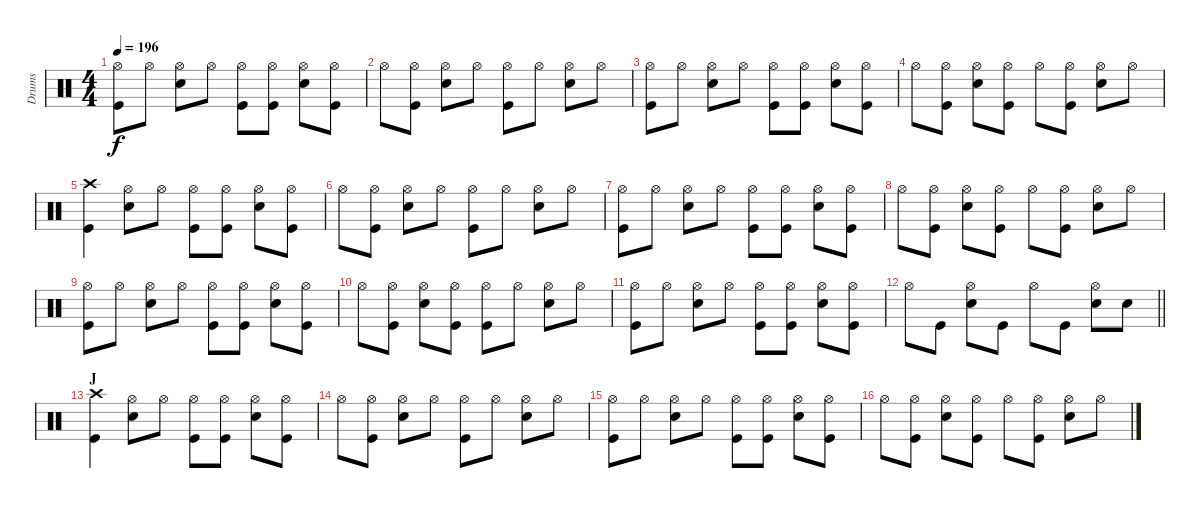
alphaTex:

\track ("Drums" "Drums") {instrument percussion}
\staff {score}
\articulation defaults
\ts (4 4)
\tempo 196
\clef neutral
\ks c
("Hi-Hat (open)" "Kick (hit)").8{dy f} "Hi-Hat (open)".8 ("Hi-Hat (open)" "Electric Snare (hit)").8 "Hi-Hat (open)".8 ("Hi-Hat (open)" "Kick (hit)").8 ("Hi-Hat (open)" "Kick (hit)").8 ("Hi-Hat (open)" "Electric Snare (hit)").8 ("Hi-Hat (open)" "Kick (hit)").8 |
"Hi-Hat (open)".8 ("Hi-Hat (open)" "Kick (hit)").8 ("Hi-Hat (open)" "Electric Snare (hit)").8 "Hi-Hat (open)".8 ("Hi-Hat (open)" "Kick (hit)").8 "Hi-Hat (open)".8 ("Hi-Hat (open)" "Electric Snare (hit)").8 "Hi-Hat (open)".8 |
("Hi-Hat (open)" "Kick (hit)").8 "Hi-Hat (open)".8 ("Hi-Hat (open)" "Electric Snare (hit)").8 "Hi-Hat (open)".8 ("Hi-Hat (open)" "Kick (hit)").8 ("Hi-Hat (open)" "Kick (hit)").8 ("Hi-Hat (open)" "Electric Snare (hit)").8 ("Hi-Hat (open)" "Kick (hit)").8 |
"Hi-Hat (open)".8 ("Hi-Hat (open)" "Kick (hit)").8 ("Hi-Hat (open)" "Electric Snare (hit)").8 ("Hi-Hat (open)" "Kick (hit)").8 "Hi-Hat (open)".8 ("Hi-Hat (open)" "Kick (hit)").8 ("Hi-Hat (open)" "Electric Snare (hit)").8 "Hi-Hat (open)".8 |
("Crash high (hit)" "Kick (hit)").4 ("Hi-Hat (open)" "Electric Snare (hit)").8 "Hi-Hat (open)".8 ("Hi-Hat (open)" "Kick (hit)").8 ("Hi-Hat (open)" "Kick (hit)").8 ("Hi-Hat (open)" "Electric Snare (hit)").8 ("Hi-Hat (open)" "Kick (hit)").8 |
"Hi-Hat (open)".8 ("Hi-Hat (open)" "Kick (hit)").8 ("Hi-Hat (open)" "Electric Snare (hit)").8 "Hi-Hat (open)".8 ("Hi-Hat (open)" "Kick (hit)").8 "Hi-Hat (open)".8 ("Hi-Hat (open)" "Electric Snare (hit)").8 "Hi-Hat (open)".8 |
("Hi-Hat (open)" "Kick (hit)").8 "Hi-Hat (open)".8 ("Hi-Hat (open)" "Electric Snare (hit)").8 "Hi-Hat (open)".8 ("Hi-Hat (open)" "Kick (hit)").8 ("Hi-Hat (open)" "Kick (hit)").8 ("Hi-Hat (open)" "Electric Snare (hit)").8 ("Hi-Hat (open)" "Kick (hit)").8 |
"Hi-Hat (open)".8 ("Hi-Hat (open)" "Kick (hit)").8 ("Hi-Hat (open)" "Electric Snare (hit)").8 ("Hi-Hat (open)" "Kick (hit)").8 "Hi-Hat (open)".8 ("Hi-Hat (open)" "Kick (hit)").8 ("Hi-Hat (open)" "Electric Snare (hit)").8 "Hi-Hat (open)".8 |
("Hi-Hat (open)" "Kick (hit)").8 "Hi-Hat (open)".8 ("Hi-Hat (open)" "Electric Snare (hit)").8 "Hi-Hat (open)".8 ("Hi-Hat (open)" "Kick (hit)").8 ("Hi-Hat (open)" "Kick (hit)").8 ("Hi-Hat (open)" "Electric Snare (hit)").8 ("Hi-Hat (open)" "Kick (hit)").8 |
"Hi-Hat (open)".8 ("Hi-Hat (open)" "Kick (hit)").8 ("Hi-Hat (open)" "Electric Snare (hit)").8 ("Hi-Hat (open)" "Kick (hit)").8 ("Hi-Hat (open)" "Kick (hit)").8 "Hi-Hat (open)".8 ("Hi-Hat (open)" "Electric Snare (hit)").8 "Hi-Hat (open)".8 |
("Hi-Hat (open)" "Kick (hit)").8 "Hi-Hat (open)".8 ("Hi-Hat (open)" "Electric Snare (hit)").8 "Hi-Hat (open)".8 ("Hi-Hat (open)" "Kick (hit)").8 ("Hi-Hat (open)" "Kick (hit)").8 ("Hi-Hat (open)" "Electric Snare (hit)").8 ("Hi-Hat (open)" "Kick (hit)").8 |
\barLineRight lightlight "Hi-Hat (open)".8 "Kick (hit)".8
("Hi-Hat (open)" "Electric Snare (hit)").8 "Kick (hit)".8 "Hi-Hat (open)".8 "Kick (hit)".8 ("Hi-Hat (open)" "Electric Snare (hit)").8 "Electric Snare (hit)".8 |
\section ("" "J")
("Crash high (hit)" "Kick (hit)").4 ("Hi-Hat (open)" "Electric Snare (hit)").8 "Hi-Hat (open)".8 ("Hi-Hat (open)" "Kick (hit)").8 ("Hi-Hat (open)" "Kick (hit)").8 ("Hi-Hat (open)" "Electric Snare (hit)").8 ("Hi-Hat (open)" "Kick (hit)").8 |
"Hi-Hat (open)".8 ("Hi-Hat (open)" "Kick (hit)").8 ("Hi-Hat (open)" "Electric Snare (hit)").8 "Hi-Hat (open)".8 ("Hi-Hat (open)" "Kick (hit)").8 "Hi-Hat (open)".8 ("Hi-Hat (open)" "Electric Snare (hit)").8 "Hi-Hat (open)".8 |
("Hi-Hat (open)" "Kick (hit)").8 "Hi-Hat (open)".8 ("Hi-Hat (open)" "Electric Snare (hit)").8 "Hi-Hat (open)".8 ("Hi-Hat (open)" "Kick (hit)").8 ("Hi-Hat (open)" "Kick (hit)").8 ("Hi-Hat (open)" "Electric Snare (hit)").8 ("Hi-Hat (open)" "Kick (hit)").8 |
"Hi-Hat (open)".8 ("Hi-Hat (open)" "Kick (hit)").8 ("Hi-Hat (open)" "Electric Snare (hit)").8 ("Hi-Hat (open)" "Kick (hit)").8 "Hi-Hat (open)".8 ("Hi-Hat (open)" "Kick (hit)").8 ("Hi-Hat (open)" "Electric Snare (hit)").8 "Hi-Hat (open)".8
